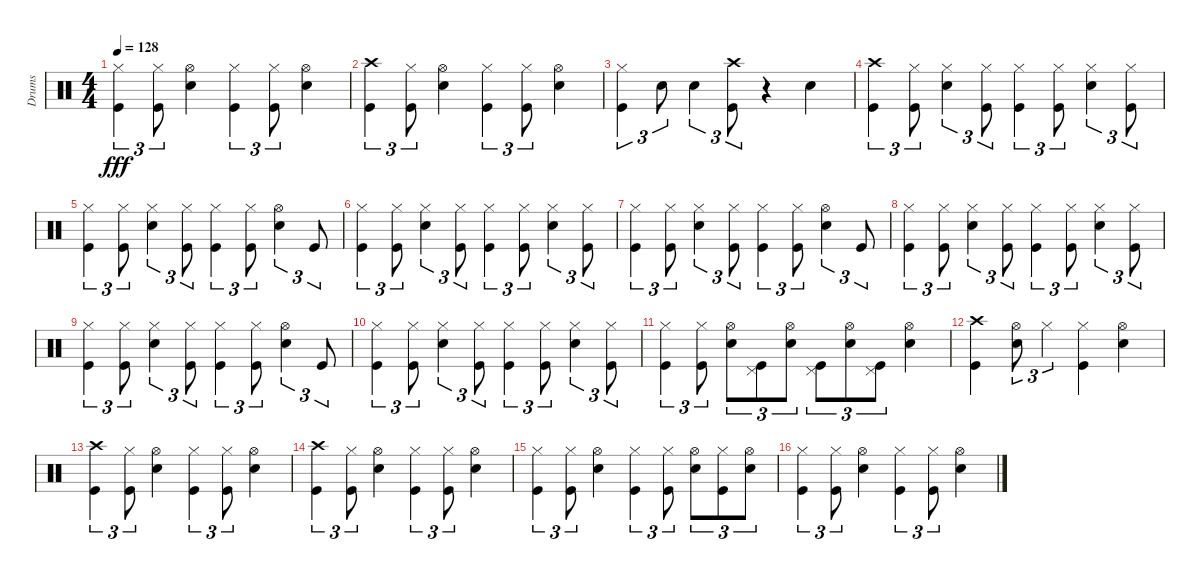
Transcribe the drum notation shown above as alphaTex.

\track ("Drums" "Drums") {instrument percussion}
\staff {score}
\articulation defaults
\ts (4 4)
\tempo 128
\clef neutral
\ks c
("Hi-Hat (closed)" "Kick (hit)").4{tu (3 2) dy fff} ("Hi-Hat (closed)" "Kick (hit)").8{tu (3 2)} ("Hi-Hat (open)" "Snare (hit) 2").4 ("Hi-Hat (closed)" "Kick (hit)").4{tu (3 2)} ("Hi-Hat (closed)" "Kick (hit)").8{tu (3 2)} ("Hi-Hat (open)" "Snare (hit) 2").4 |
("Crash high (hit)" "Kick (hit)").4{tu (3 2)} ("Hi-Hat (closed)" "Kick (hit)").8{tu (3 2)} ("Hi-Hat (open)" "Snare (hit) 2").4 ("Hi-Hat (closed)" "Kick (hit)").4{tu (3 2)} ("Hi-Hat (closed)" "Kick (hit)").8{tu (3 2)} ("Hi-Hat (open)" "Snare (hit) 2").4 |
("Hi-Hat (closed)" "Kick (hit)").4{tu (3 2)} "Snare (hit) 2".8{tu (3 2)} "Snare (hit) 2".4{tu (3 2)} ("Crash high (hit)" "Kick (hit)").8{tu (3 2)} r.4 "Snare (hit) 2".4 |
("Crash high (hit)" "Kick (hit)").4{tu (3 2)} ("Hi-Hat (closed)" "Kick (hit)").8{tu (3 2)} ("Hi-Hat (closed)" "Snare (hit) 2").4{tu (3 2)} ("Hi-Hat (closed)" "Kick (hit)").8{tu (3 2)} ("Hi-Hat (closed)" "Kick (hit)").4{tu (3 2)} ("Hi-Hat (closed)" "Kick (hit)").8{tu (3 2)} ("Hi-Hat (closed)" "Snare (hit) 2").4{tu (3 2)} ("Hi-Hat (closed)" "Kick (hit)").8{tu (3 2)} |
("Hi-Hat (closed)" "Kick (hit)").4{tu (3 2)} ("Hi-Hat (closed)" "Kick (hit)").8{tu (3 2)} ("Hi-Hat (closed)" "Snare (hit) 2").4{tu (3 2)} ("Hi-Hat (closed)" "Kick (hit)").8{tu (3 2)} ("Hi-Hat (closed)" "Kick (hit)").4{tu (3 2)} ("Hi-Hat (closed)" "Kick (hit)").8{tu (3 2)} ("Hi-Hat (open)" "Snare (hit) 2").4{tu (3 2)} "Kick (hit)".8{tu (3 2)} |
("Hi-Hat (closed)" "Kick (hit)").4{tu (3 2)} ("Hi-Hat (closed)" "Kick (hit)").8{tu (3 2)} ("Hi-Hat (closed)" "Snare (hit) 2").4{tu (3 2)} ("Hi-Hat (closed)" "Kick (hit)").8{tu (3 2)} ("Hi-Hat (closed)" "Kick (hit)").4{tu (3 2)} ("Hi-Hat (closed)" "Kick (hit)").8{tu (3 2)} ("Hi-Hat (closed)" "Snare (hit) 2").4{tu (3 2)} ("Hi-Hat (closed)" "Kick (hit)").8{tu (3 2)} |
("Hi-Hat (closed)" "Kick (hit)").4{tu (3 2)} ("Hi-Hat (closed)" "Kick (hit)").8{tu (3 2)} ("Hi-Hat (closed)" "Snare (hit) 2").4{tu (3 2)} ("Hi-Hat (closed)" "Kick (hit)").8{tu (3 2)} ("Hi-Hat (closed)" "Kick (hit)").4{tu (3 2)} ("Hi-Hat (closed)" "Kick (hit)").8{tu (3 2)} ("Hi-Hat (open)" "Snare (hit) 2").4{tu (3 2)} "Kick (hit)".8{tu (3 2)} |
("Hi-Hat (closed)" "Kick (hit)").4{tu (3 2)} ("Hi-Hat (closed)" "Kick (hit)").8{tu (3 2)} ("Hi-Hat (closed)" "Snare (hit) 2").4{tu (3 2)} ("Hi-Hat (closed)" "Kick (hit)").8{tu (3 2)} ("Hi-Hat (closed)" "Kick (hit)").4{tu (3 2)} ("Hi-Hat (closed)" "Kick (hit)").8{tu (3 2)} ("Hi-Hat (closed)" "Snare (hit) 2").4{tu (3 2)} ("Hi-Hat (closed)" "Kick (hit)").8{tu (3 2)} |
("Hi-Hat (closed)" "Kick (hit)").4{tu (3 2)} ("Hi-Hat (closed)" "Kick (hit)").8{tu (3 2)} ("Hi-Hat (closed)" "Snare (hit) 2").4{tu (3 2)} ("Hi-Hat (closed)" "Kick (hit)").8{tu (3 2)} ("Hi-Hat (closed)" "Kick (hit)").4{tu (3 2)} ("Hi-Hat (closed)" "Kick (hit)").8{tu (3 2)} ("Hi-Hat (open)" "Snare (hit) 2").4{tu (3 2)} "Kick (hit)".8{tu (3 2)} |
("Hi-Hat (closed)" "Kick (hit)").4{tu (3 2)} ("Hi-Hat (closed)" "Kick (hit)").8{tu (3 2)} ("Hi-Hat (closed)" "Snare (hit) 2").4{tu (3 2)} ("Hi-Hat (closed)" "Kick (hit)").8{tu (3 2)} ("Hi-Hat (closed)" "Kick (hit)").4{tu (3 2)} ("Hi-Hat (closed)" "Kick (hit)").8{tu (3 2)} ("Hi-Hat (closed)" "Snare (hit) 2").4{tu (3 2)} ("Hi-Hat (closed)" "Kick (hit)").8{tu (3 2)} |
("Hi-Hat (closed)" "Kick (hit)").4{tu (3 2)} ("Hi-Hat (closed)" "Kick (hit)").8{tu (3 2)} ("Hi-Hat (open)" "Snare (hit) 2").8{tu (3 2)} ("Pedal Hi-Hat (hit)" "Kick (hit)").8{tu (3 2)} ("Hi-Hat (open)" "Snare (hit) 2").8{tu (3 2)} ("Pedal Hi-Hat (hit)" "Kick (hit)").8{tu (3 2)} ("Hi-Hat (open)" "Snare (hit) 2").8{tu (3 2)} ("Pedal Hi-Hat (hit)" "Kick (hit)").8{tu (3 2)} ("Hi-Hat (open)" "Snare (hit) 2").4 |
("Crash high (hit)" "Kick (hit)").4 ("Hi-Hat (open)" "Snare (hit) 2").8{tu (3 2)} "Hi-Hat (closed)".4{tu (3 2)} ("Hi-Hat (closed)" "Kick (hit)").4 ("Hi-Hat (open)" "Snare (hit) 2").4 |
("Crash high (hit)" "Kick (hit)").4{tu (3 2)} ("Hi-Hat (closed)" "Kick (hit)").8{tu (3 2)} ("Hi-Hat (open)" "Snare (hit) 2").4 ("Hi-Hat (closed)" "Kick (hit)").4{tu (3 2)} ("Hi-Hat (closed)" "Kick (hit)").8{tu (3 2)} ("Hi-Hat (open)" "Snare (hit) 2").4 |
("Crash high (hit)" "Kick (hit)").4{tu (3 2)} ("Hi-Hat (closed)" "Kick (hit)").8{tu (3 2)} ("Hi-Hat (open)" "Snare (hit) 2").4 ("Hi-Hat (closed)" "Kick (hit)").4{tu (3 2)} ("Hi-Hat (closed)" "Kick (hit)").8{tu (3 2)} ("Hi-Hat (open)" "Snare (hit) 2").4 |
("Hi-Hat (closed)" "Kick (hit)").4{tu (3 2)} ("Hi-Hat (closed)" "Kick (hit)").8{tu (3 2)} ("Hi-Hat (open)" "Snare (hit) 2").4 ("Hi-Hat (closed)" "Kick (hit)").4{tu (3 2)} ("Hi-Hat (closed)" "Kick (hit)").8{tu (3 2)} ("Hi-Hat (open)" "Snare (hit) 2").8{tu (3 2)} ("Hi-Hat (closed)" "Kick (hit)").8{tu (3 2)} ("Hi-Hat (open)" "Snare (hit) 2").8{tu (3 2)} |
("Hi-Hat (closed)" "Kick (hit)").4{tu (3 2)} ("Hi-Hat (closed)" "Kick (hit)").8{tu (3 2)} ("Hi-Hat (open)" "Snare (hit) 2").4 ("Hi-Hat (closed)" "Kick (hit)").4{tu (3 2)} ("Hi-Hat (closed)" "Kick (hit)").8{tu (3 2)} ("Hi-Hat (open)" "Snare (hit) 2").4
